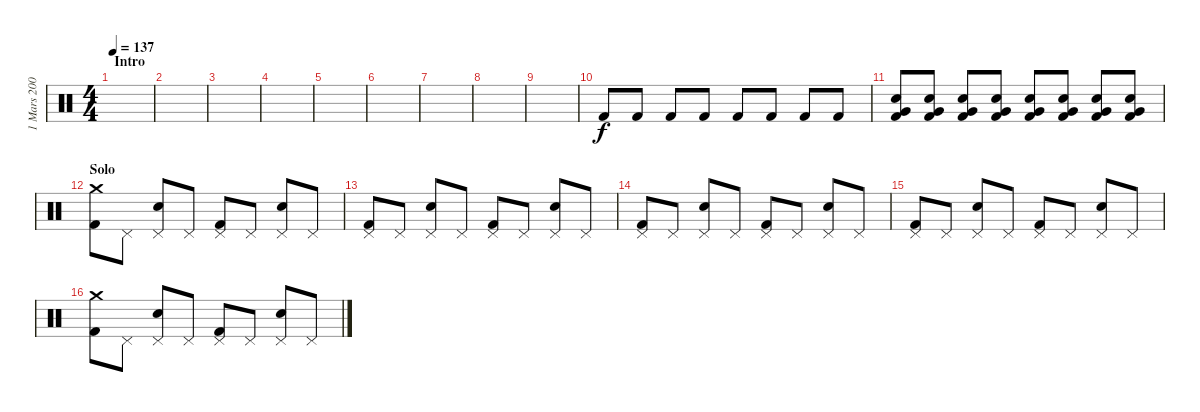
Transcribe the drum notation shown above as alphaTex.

\track ("1 Mars 2004" "1 Mars 200") {instrument percussion}
\staff {score}
\articulation defaults
\ts (4 4)
\section ("" "Intro")
\tempo 137
\clef neutral
\ks c
|
|
|
|
|
|
|
|
|
"Kick (hit) 2".8 "Kick (hit) 2".8 "Kick (hit) 2".8 "Kick (hit) 2".8 "Kick (hit) 2".8 "Kick (hit) 2".8 "Kick (hit) 2".8 "Kick (hit) 2".8 |
("Very Low Tom (hit)" "Electric Snare (hit)" "Kick (hit) 2").8 ("Very Low Tom (hit)" "Electric Snare (hit)" "Kick (hit) 2").8 ("Very Low Tom (hit)" "Electric Snare (hit)" "Kick (hit) 2").8 ("Very Low Tom (hit)" "Electric Snare (hit)" "Kick (hit) 2").8 ("Very Low Tom (hit)" "Electric Snare (hit)" "Kick (hit) 2").8 ("Very Low Tom (hit)" "Electric Snare (hit)" "Kick (hit) 2").8 ("Very Low Tom (hit)" "Electric Snare (hit)" "Kick (hit) 2").8 ("Very Low Tom (hit)" "Electric Snare (hit)" "Kick (hit) 2").8 |
\section ("" "Solo")
("Crash medium (hit)" "Kick (hit) 2").8 "Pedal Hi-Hat (hit)".8 ("Pedal Hi-Hat (hit)" "Electric Snare (hit)").8 "Pedal Hi-Hat (hit)".8 ("Pedal Hi-Hat (hit)" "Kick (hit) 2").8 "Pedal Hi-Hat (hit)".8 ("Pedal Hi-Hat (hit)" "Electric Snare (hit)").8 "Pedal Hi-Hat (hit)".8 |
("Pedal Hi-Hat (hit)" "Kick (hit) 2").8 "Pedal Hi-Hat (hit)".8 ("Pedal Hi-Hat (hit)" "Electric Snare (hit)").8 "Pedal Hi-Hat (hit)".8 ("Pedal Hi-Hat (hit)" "Kick (hit) 2").8 "Pedal Hi-Hat (hit)".8 ("Pedal Hi-Hat (hit)" "Electric Snare (hit)").8 "Pedal Hi-Hat (hit)".8 |
("Pedal Hi-Hat (hit)" "Kick (hit) 2").8 "Pedal Hi-Hat (hit)".8 ("Pedal Hi-Hat (hit)" "Electric Snare (hit)").8 "Pedal Hi-Hat (hit)".8 ("Pedal Hi-Hat (hit)" "Kick (hit) 2").8 "Pedal Hi-Hat (hit)".8 ("Pedal Hi-Hat (hit)" "Electric Snare (hit)").8 "Pedal Hi-Hat (hit)".8 |
("Pedal Hi-Hat (hit)" "Kick (hit) 2").8 "Pedal Hi-Hat (hit)".8 ("Pedal Hi-Hat (hit)" "Electric Snare (hit)").8 "Pedal Hi-Hat (hit)".8 ("Pedal Hi-Hat (hit)" "Kick (hit) 2").8 "Pedal Hi-Hat (hit)".8 ("Pedal Hi-Hat (hit)" "Electric Snare (hit)").8 "Pedal Hi-Hat (hit)".8 |
("Crash medium (hit)" "Kick (hit) 2").8 "Pedal Hi-Hat (hit)".8 ("Pedal Hi-Hat (hit)" "Electric Snare (hit)").8 "Pedal Hi-Hat (hit)".8 ("Pedal Hi-Hat (hit)" "Kick (hit) 2").8 "Pedal Hi-Hat (hit)".8 ("Pedal Hi-Hat (hit)" "Electric Snare (hit)").8 "Pedal Hi-Hat (hit)".8
